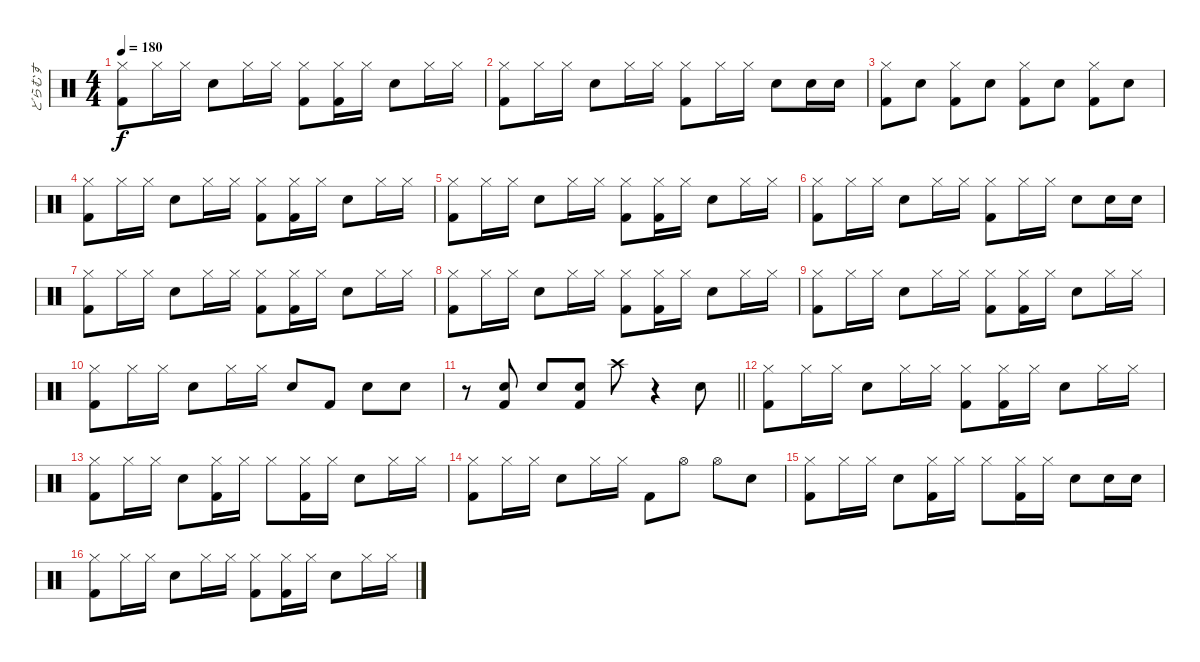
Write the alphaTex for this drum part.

\track ("どらむす" "どらむす") {instrument percussion}
\staff {score}
\articulation defaults
\ts (4 4)
\tempo 180
\clef neutral
\ks c
("Hi-Hat (closed)" "Kick (hit) 2").8{dy f} "Hi-Hat (closed)".16 "Hi-Hat (closed)".16 "Electric Snare (hit)".8 "Hi-Hat (closed)".16 "Hi-Hat (closed)".16 ("Hi-Hat (closed)" "Kick (hit) 2").8 ("Hi-Hat (closed)" "Kick (hit) 2").16 "Hi-Hat (closed)".16 "Electric Snare (hit)".8 "Hi-Hat (closed)".16 "Hi-Hat (closed)".16 |
("Hi-Hat (closed)" "Kick (hit) 2").8 "Hi-Hat (closed)".16 "Hi-Hat (closed)".16 "Electric Snare (hit)".8 "Hi-Hat (closed)".16 "Hi-Hat (closed)".16 ("Hi-Hat (closed)" "Kick (hit) 2").8 "Hi-Hat (closed)".16 "Hi-Hat (closed)".16 "Electric Snare (hit)".8 "Electric Snare (hit)".16 "Electric Snare (hit)".16 |
("Hi-Hat (closed)" "Kick (hit) 2").8 "Electric Snare (hit)".8 ("Hi-Hat (closed)" "Kick (hit) 2").8 "Electric Snare (hit)".8 ("Hi-Hat (closed)" "Kick (hit) 2").8 "Electric Snare (hit)".8 ("Hi-Hat (closed)" "Kick (hit) 2").8 "Electric Snare (hit)".8 |
("Hi-Hat (closed)" "Kick (hit) 2").8 "Hi-Hat (closed)".16 "Hi-Hat (closed)".16 "Electric Snare (hit)".8 "Hi-Hat (closed)".16 "Hi-Hat (closed)".16 ("Hi-Hat (closed)" "Kick (hit) 2").8 ("Hi-Hat (closed)" "Kick (hit) 2").16 "Hi-Hat (closed)".16 "Electric Snare (hit)".8 "Hi-Hat (closed)".16 "Hi-Hat (closed)".16 |
("Hi-Hat (closed)" "Kick (hit) 2").8 "Hi-Hat (closed)".16 "Hi-Hat (closed)".16 "Electric Snare (hit)".8 "Hi-Hat (closed)".16 "Hi-Hat (closed)".16 ("Hi-Hat (closed)" "Kick (hit) 2").8 ("Hi-Hat (closed)" "Kick (hit) 2").16 "Hi-Hat (closed)".16 "Electric Snare (hit)".8 "Hi-Hat (closed)".16 "Hi-Hat (closed)".16 |
("Hi-Hat (closed)" "Kick (hit) 2").8 "Hi-Hat (closed)".16 "Hi-Hat (closed)".16 "Electric Snare (hit)".8 "Hi-Hat (closed)".16 "Hi-Hat (closed)".16 ("Hi-Hat (closed)" "Kick (hit) 2").8 "Hi-Hat (closed)".16 "Hi-Hat (closed)".16 "Electric Snare (hit)".8 "Electric Snare (hit)".16 "Electric Snare (hit)".16 |
("Hi-Hat (closed)" "Kick (hit) 2").8 "Hi-Hat (closed)".16 "Hi-Hat (closed)".16 "Electric Snare (hit)".8 "Hi-Hat (closed)".16 "Hi-Hat (closed)".16 ("Hi-Hat (closed)" "Kick (hit) 2").8 ("Hi-Hat (closed)" "Kick (hit) 2").16 "Hi-Hat (closed)".16 "Electric Snare (hit)".8 "Hi-Hat (closed)".16 "Hi-Hat (closed)".16 |
("Hi-Hat (closed)" "Kick (hit) 2").8 "Hi-Hat (closed)".16 "Hi-Hat (closed)".16 "Electric Snare (hit)".8 "Hi-Hat (closed)".16 "Hi-Hat (closed)".16 ("Hi-Hat (closed)" "Kick (hit) 2").8 ("Hi-Hat (closed)" "Kick (hit) 2").16 "Hi-Hat (closed)".16 "Electric Snare (hit)".8 "Hi-Hat (closed)".16 "Hi-Hat (closed)".16 |
("Hi-Hat (closed)" "Kick (hit) 2").8 "Hi-Hat (closed)".16 "Hi-Hat (closed)".16 "Electric Snare (hit)".8 "Hi-Hat (closed)".16 "Hi-Hat (closed)".16 ("Hi-Hat (closed)" "Kick (hit) 2").8 ("Hi-Hat (closed)" "Kick (hit) 2").16 "Hi-Hat (closed)".16 "Electric Snare (hit)".8 "Hi-Hat (closed)".16 "Hi-Hat (closed)".16 |
("Hi-Hat (closed)" "Kick (hit) 2").8 "Hi-Hat (closed)".16 "Hi-Hat (closed)".16 "Electric Snare (hit)".8 "Hi-Hat (closed)".16 "Hi-Hat (closed)".16 "Electric Snare (hit)".8 "Kick (hit) 2".8 "Electric Snare (hit)".8 "Electric Snare (hit)".8 |
\barLineRight lightlight
r.8 ("Electric Snare (hit)" "Kick (hit) 2").8 "Electric Snare (hit)".8 ("Electric Snare (hit)" "Kick (hit) 2").8 "Crash high (hit)".8 r.4 "Electric Snare (hit)".8 |
("Hi-Hat (closed)" "Kick (hit) 2").8 "Hi-Hat (closed)".16 "Hi-Hat (closed)".16 "Electric Snare (hit)".8 "Hi-Hat (closed)".16 "Hi-Hat (closed)".16 ("Hi-Hat (closed)" "Kick (hit) 2").8 ("Hi-Hat (closed)" "Kick (hit) 2").16 "Hi-Hat (closed)".16 "Electric Snare (hit)".8 "Hi-Hat (closed)".16 "Hi-Hat (closed)".16 |
("Hi-Hat (closed)" "Kick (hit) 2").8 "Hi-Hat (closed)".16 "Hi-Hat (closed)".16 "Electric Snare (hit)".8 ("Hi-Hat (closed)" "Kick (hit) 2").16 "Hi-Hat (closed)".16 "Hi-Hat (closed)".8 ("Hi-Hat (closed)" "Kick (hit) 2").16 "Hi-Hat (closed)".16 "Electric Snare (hit)".8 "Hi-Hat (closed)".16 "Hi-Hat (closed)".16 |
("Hi-Hat (closed)" "Kick (hit) 2").8 "Hi-Hat (closed)".16 "Hi-Hat (closed)".16 "Electric Snare (hit)".8 "Hi-Hat (closed)".16 "Hi-Hat (closed)".16 "Kick (hit) 2".8 "Hi-Hat (open)".8 "Hi-Hat (open)".8 "Electric Snare (hit)".8 |
("Hi-Hat (closed)" "Kick (hit) 2").8 "Hi-Hat (closed)".16 "Hi-Hat (closed)".16 "Electric Snare (hit)".8 ("Hi-Hat (closed)" "Kick (hit) 2").16 "Hi-Hat (closed)".16 "Hi-Hat (closed)".8 ("Hi-Hat (closed)" "Kick (hit) 2").16 "Hi-Hat (closed)".16 "Electric Snare (hit)".8 "Electric Snare (hit)".16 "Electric Snare (hit)".16 |
("Hi-Hat (closed)" "Kick (hit) 2").8 "Hi-Hat (closed)".16 "Hi-Hat (closed)".16 "Electric Snare (hit)".8 "Hi-Hat (closed)".16 "Hi-Hat (closed)".16 ("Hi-Hat (closed)" "Kick (hit) 2").8 ("Hi-Hat (closed)" "Kick (hit) 2").16 "Hi-Hat (closed)".16 "Electric Snare (hit)".8 "Hi-Hat (closed)".16 "Hi-Hat (closed)".16
